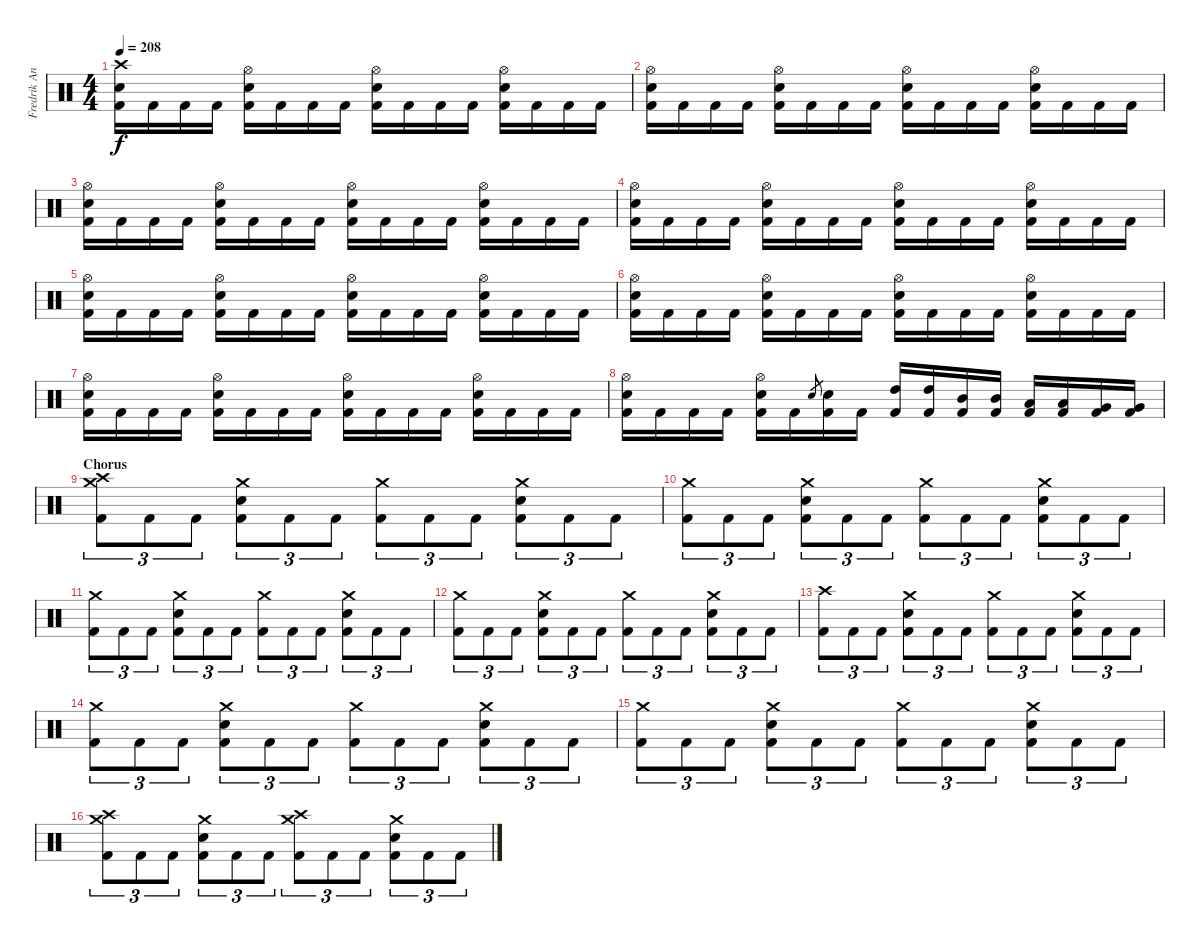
\track ("Fredrik Andersson" "Fredrik An") {instrument percussion}
\staff {score}
\articulation defaults
\ts (4 4)
\section ("" "")
\tempo 208
\clef neutral
\ks c
("Crash high (hit)" "Electric Snare (hit)" "Kick (hit) 2").16{dy f} "Kick (hit) 2".16 "Kick (hit) 2".16 "Kick (hit) 2".16 ("Hi-Hat (open)" "Electric Snare (hit)" "Kick (hit) 2").16 "Kick (hit) 2".16 "Kick (hit) 2".16 "Kick (hit) 2".16 ("Hi-Hat (open)" "Electric Snare (hit)" "Kick (hit) 2").16 "Kick (hit) 2".16 "Kick (hit) 2".16 "Kick (hit) 2".16 ("Hi-Hat (open)" "Electric Snare (hit)" "Kick (hit) 2").16 "Kick (hit) 2".16 "Kick (hit) 2".16 "Kick (hit) 2".16 |
("Hi-Hat (open)" "Electric Snare (hit)" "Kick (hit) 2").16 "Kick (hit) 2".16 "Kick (hit) 2".16 "Kick (hit) 2".16 ("Hi-Hat (open)" "Electric Snare (hit)" "Kick (hit) 2").16 "Kick (hit) 2".16 "Kick (hit) 2".16 "Kick (hit) 2".16 ("Hi-Hat (open)" "Electric Snare (hit)" "Kick (hit) 2").16 "Kick (hit) 2".16 "Kick (hit) 2".16 "Kick (hit) 2".16 ("Hi-Hat (open)" "Electric Snare (hit)" "Kick (hit) 2").16 "Kick (hit) 2".16 "Kick (hit) 2".16 "Kick (hit) 2".16 |
("Hi-Hat (open)" "Electric Snare (hit)" "Kick (hit) 2").16 "Kick (hit) 2".16 "Kick (hit) 2".16 "Kick (hit) 2".16 ("Hi-Hat (open)" "Electric Snare (hit)" "Kick (hit) 2").16 "Kick (hit) 2".16 "Kick (hit) 2".16 "Kick (hit) 2".16 ("Hi-Hat (open)" "Electric Snare (hit)" "Kick (hit) 2").16 "Kick (hit) 2".16 "Kick (hit) 2".16 "Kick (hit) 2".16 ("Hi-Hat (open)" "Electric Snare (hit)" "Kick (hit) 2").16 "Kick (hit) 2".16 "Kick (hit) 2".16 "Kick (hit) 2".16 |
("Hi-Hat (open)" "Electric Snare (hit)" "Kick (hit) 2").16 "Kick (hit) 2".16 "Kick (hit) 2".16 "Kick (hit) 2".16 ("Hi-Hat (open)" "Electric Snare (hit)" "Kick (hit) 2").16 "Kick (hit) 2".16 "Kick (hit) 2".16 "Kick (hit) 2".16 ("Hi-Hat (open)" "Electric Snare (hit)" "Kick (hit) 2").16 "Kick (hit) 2".16 "Kick (hit) 2".16 "Kick (hit) 2".16 ("Hi-Hat (open)" "Electric Snare (hit)" "Kick (hit) 2").16 "Kick (hit) 2".16 "Kick (hit) 2".16 "Kick (hit) 2".16 |
("Hi-Hat (open)" "Electric Snare (hit)" "Kick (hit) 2").16 "Kick (hit) 2".16 "Kick (hit) 2".16 "Kick (hit) 2".16 ("Hi-Hat (open)" "Electric Snare (hit)" "Kick (hit) 2").16 "Kick (hit) 2".16 "Kick (hit) 2".16 "Kick (hit) 2".16 ("Hi-Hat (open)" "Electric Snare (hit)" "Kick (hit) 2").16 "Kick (hit) 2".16 "Kick (hit) 2".16 "Kick (hit) 2".16 ("Hi-Hat (open)" "Electric Snare (hit)" "Kick (hit) 2").16 "Kick (hit) 2".16 "Kick (hit) 2".16 "Kick (hit) 2".16 |
("Hi-Hat (open)" "Electric Snare (hit)" "Kick (hit) 2").16 "Kick (hit) 2".16 "Kick (hit) 2".16 "Kick (hit) 2".16 ("Hi-Hat (open)" "Electric Snare (hit)" "Kick (hit) 2").16 "Kick (hit) 2".16 "Kick (hit) 2".16 "Kick (hit) 2".16 ("Hi-Hat (open)" "Electric Snare (hit)" "Kick (hit) 2").16 "Kick (hit) 2".16 "Kick (hit) 2".16 "Kick (hit) 2".16 ("Hi-Hat (open)" "Electric Snare (hit)" "Kick (hit) 2").16 "Kick (hit) 2".16 "Kick (hit) 2".16 "Kick (hit) 2".16 |
("Hi-Hat (open)" "Electric Snare (hit)" "Kick (hit) 2").16 "Kick (hit) 2".16 "Kick (hit) 2".16 "Kick (hit) 2".16 ("Hi-Hat (open)" "Electric Snare (hit)" "Kick (hit) 2").16 "Kick (hit) 2".16 "Kick (hit) 2".16 "Kick (hit) 2".16 ("Hi-Hat (open)" "Electric Snare (hit)" "Kick (hit) 2").16 "Kick (hit) 2".16 "Kick (hit) 2".16 "Kick (hit) 2".16 ("Hi-Hat (open)" "Electric Snare (hit)" "Kick (hit) 2").16 "Kick (hit) 2".16 "Kick (hit) 2".16 "Kick (hit) 2".16 |
("Hi-Hat (open)" "Electric Snare (hit)" "Kick (hit) 2").16 "Kick (hit) 2".16 "Kick (hit) 2".16 "Kick (hit) 2".16 ("Hi-Hat (open)" "Electric Snare (hit)" "Kick (hit) 2").16 "Kick (hit) 2".16 "Electric Snare (hit)".8{gr} ("Electric Snare (hit)" "Kick (hit) 2").16 "Kick (hit) 2".16 ("High Tom (hit)" "Kick (hit) 2").16 ("High Tom (hit)" "Kick (hit) 2").16 ("Mid Tom (hit)" "Kick (hit) 2").16 ("Mid Tom (hit)" "Kick (hit) 2").16 ("Low Tom (hit)" "Kick (hit) 2").16 ("Low Tom (hit)" "Kick (hit) 2").16 ("Very Low Tom (hit)" "Kick (hit) 2").16 ("Very Low Tom (hit)" "Kick (hit) 2").16 |
\section ("" "Chorus")
("Crash high (hit)" "Crash medium (hit)" "Kick (hit) 2").8{tu (3 2)} "Kick (hit) 2".8{tu (3 2)} "Kick (hit) 2".8{tu (3 2)} ("Crash medium (hit)" "Electric Snare (hit)" "Kick (hit) 2").8{tu (3 2)} "Kick (hit) 2".8{tu (3 2)} "Kick (hit) 2".8{tu (3 2)} ("Crash medium (hit)" "Kick (hit) 2").8{tu (3 2)} "Kick (hit) 2".8{tu (3 2)} "Kick (hit) 2".8{tu (3 2)} ("Crash medium (hit)" "Electric Snare (hit)" "Kick (hit) 2").8{tu (3 2)} "Kick (hit) 2".8{tu (3 2)} "Kick (hit) 2".8{tu (3 2)} |
("Crash medium (hit)" "Kick (hit) 2").8{tu (3 2)} "Kick (hit) 2".8{tu (3 2)} "Kick (hit) 2".8{tu (3 2)} ("Crash medium (hit)" "Electric Snare (hit)" "Kick (hit) 2").8{tu (3 2)} "Kick (hit) 2".8{tu (3 2)} "Kick (hit) 2".8{tu (3 2)} ("Crash medium (hit)" "Kick (hit) 2").8{tu (3 2)} "Kick (hit) 2".8{tu (3 2)} "Kick (hit) 2".8{tu (3 2)} ("Crash medium (hit)" "Electric Snare (hit)" "Kick (hit) 2").8{tu (3 2)} "Kick (hit) 2".8{tu (3 2)} "Kick (hit) 2".8{tu (3 2)} |
("Crash medium (hit)" "Kick (hit) 2").8{tu (3 2)} "Kick (hit) 2".8{tu (3 2)} "Kick (hit) 2".8{tu (3 2)} ("Crash medium (hit)" "Electric Snare (hit)" "Kick (hit) 2").8{tu (3 2)} "Kick (hit) 2".8{tu (3 2)} "Kick (hit) 2".8{tu (3 2)} ("Crash medium (hit)" "Kick (hit) 2").8{tu (3 2)} "Kick (hit) 2".8{tu (3 2)} "Kick (hit) 2".8{tu (3 2)} ("Crash medium (hit)" "Electric Snare (hit)" "Kick (hit) 2").8{tu (3 2)} "Kick (hit) 2".8{tu (3 2)} "Kick (hit) 2".8{tu (3 2)} |
("Crash medium (hit)" "Kick (hit) 2").8{tu (3 2)} "Kick (hit) 2".8{tu (3 2)} "Kick (hit) 2".8{tu (3 2)} ("Crash medium (hit)" "Electric Snare (hit)" "Kick (hit) 2").8{tu (3 2)} "Kick (hit) 2".8{tu (3 2)} "Kick (hit) 2".8{tu (3 2)} ("Crash medium (hit)" "Kick (hit) 2").8{tu (3 2)} "Kick (hit) 2".8{tu (3 2)} "Kick (hit) 2".8{tu (3 2)} ("Crash medium (hit)" "Electric Snare (hit)" "Kick (hit) 2").8{tu (3 2)} "Kick (hit) 2".8{tu (3 2)} "Kick (hit) 2".8{tu (3 2)} |
("Crash high (hit)" "Kick (hit) 2").8{tu (3 2)} "Kick (hit) 2".8{tu (3 2)} "Kick (hit) 2".8{tu (3 2)} ("Crash medium (hit)" "Electric Snare (hit)" "Kick (hit) 2").8{tu (3 2)} "Kick (hit) 2".8{tu (3 2)} "Kick (hit) 2".8{tu (3 2)} ("Crash medium (hit)" "Kick (hit) 2").8{tu (3 2)} "Kick (hit) 2".8{tu (3 2)} "Kick (hit) 2".8{tu (3 2)} ("Crash medium (hit)" "Electric Snare (hit)" "Kick (hit) 2").8{tu (3 2)} "Kick (hit) 2".8{tu (3 2)} "Kick (hit) 2".8{tu (3 2)} |
("Crash medium (hit)" "Kick (hit) 2").8{tu (3 2)} "Kick (hit) 2".8{tu (3 2)} "Kick (hit) 2".8{tu (3 2)} ("Crash medium (hit)" "Electric Snare (hit)" "Kick (hit) 2").8{tu (3 2)} "Kick (hit) 2".8{tu (3 2)} "Kick (hit) 2".8{tu (3 2)} ("Crash medium (hit)" "Kick (hit) 2").8{tu (3 2)} "Kick (hit) 2".8{tu (3 2)} "Kick (hit) 2".8{tu (3 2)} ("Crash medium (hit)" "Electric Snare (hit)" "Kick (hit) 2").8{tu (3 2)} "Kick (hit) 2".8{tu (3 2)} "Kick (hit) 2".8{tu (3 2)} |
("Crash medium (hit)" "Kick (hit) 2").8{tu (3 2)} "Kick (hit) 2".8{tu (3 2)} "Kick (hit) 2".8{tu (3 2)} ("Crash medium (hit)" "Electric Snare (hit)" "Kick (hit) 2").8{tu (3 2)} "Kick (hit) 2".8{tu (3 2)} "Kick (hit) 2".8{tu (3 2)} ("Crash medium (hit)" "Kick (hit) 2").8{tu (3 2)} "Kick (hit) 2".8{tu (3 2)} "Kick (hit) 2".8{tu (3 2)} ("Crash medium (hit)" "Electric Snare (hit)" "Kick (hit) 2").8{tu (3 2)} "Kick (hit) 2".8{tu (3 2)} "Kick (hit) 2".8{tu (3 2)} |
("Crash medium (hit)" "Crash high (hit)" "Kick (hit) 2").8{tu (3 2)} "Kick (hit) 2".8{tu (3 2)} "Kick (hit) 2".8{tu (3 2)} ("Crash medium (hit)" "Electric Snare (hit)" "Kick (hit) 2").8{tu (3 2)} "Kick (hit) 2".8{tu (3 2)} "Kick (hit) 2".8{tu (3 2)} ("Crash medium (hit)" "Crash high (hit)" "Kick (hit) 2").8{tu (3 2)} "Kick (hit) 2".8{tu (3 2)} "Kick (hit) 2".8{tu (3 2)} ("Crash medium (hit)" "Electric Snare (hit)" "Kick (hit) 2").8{tu (3 2)} "Kick (hit) 2".8{tu (3 2)} "Kick (hit) 2".8{tu (3 2)}
